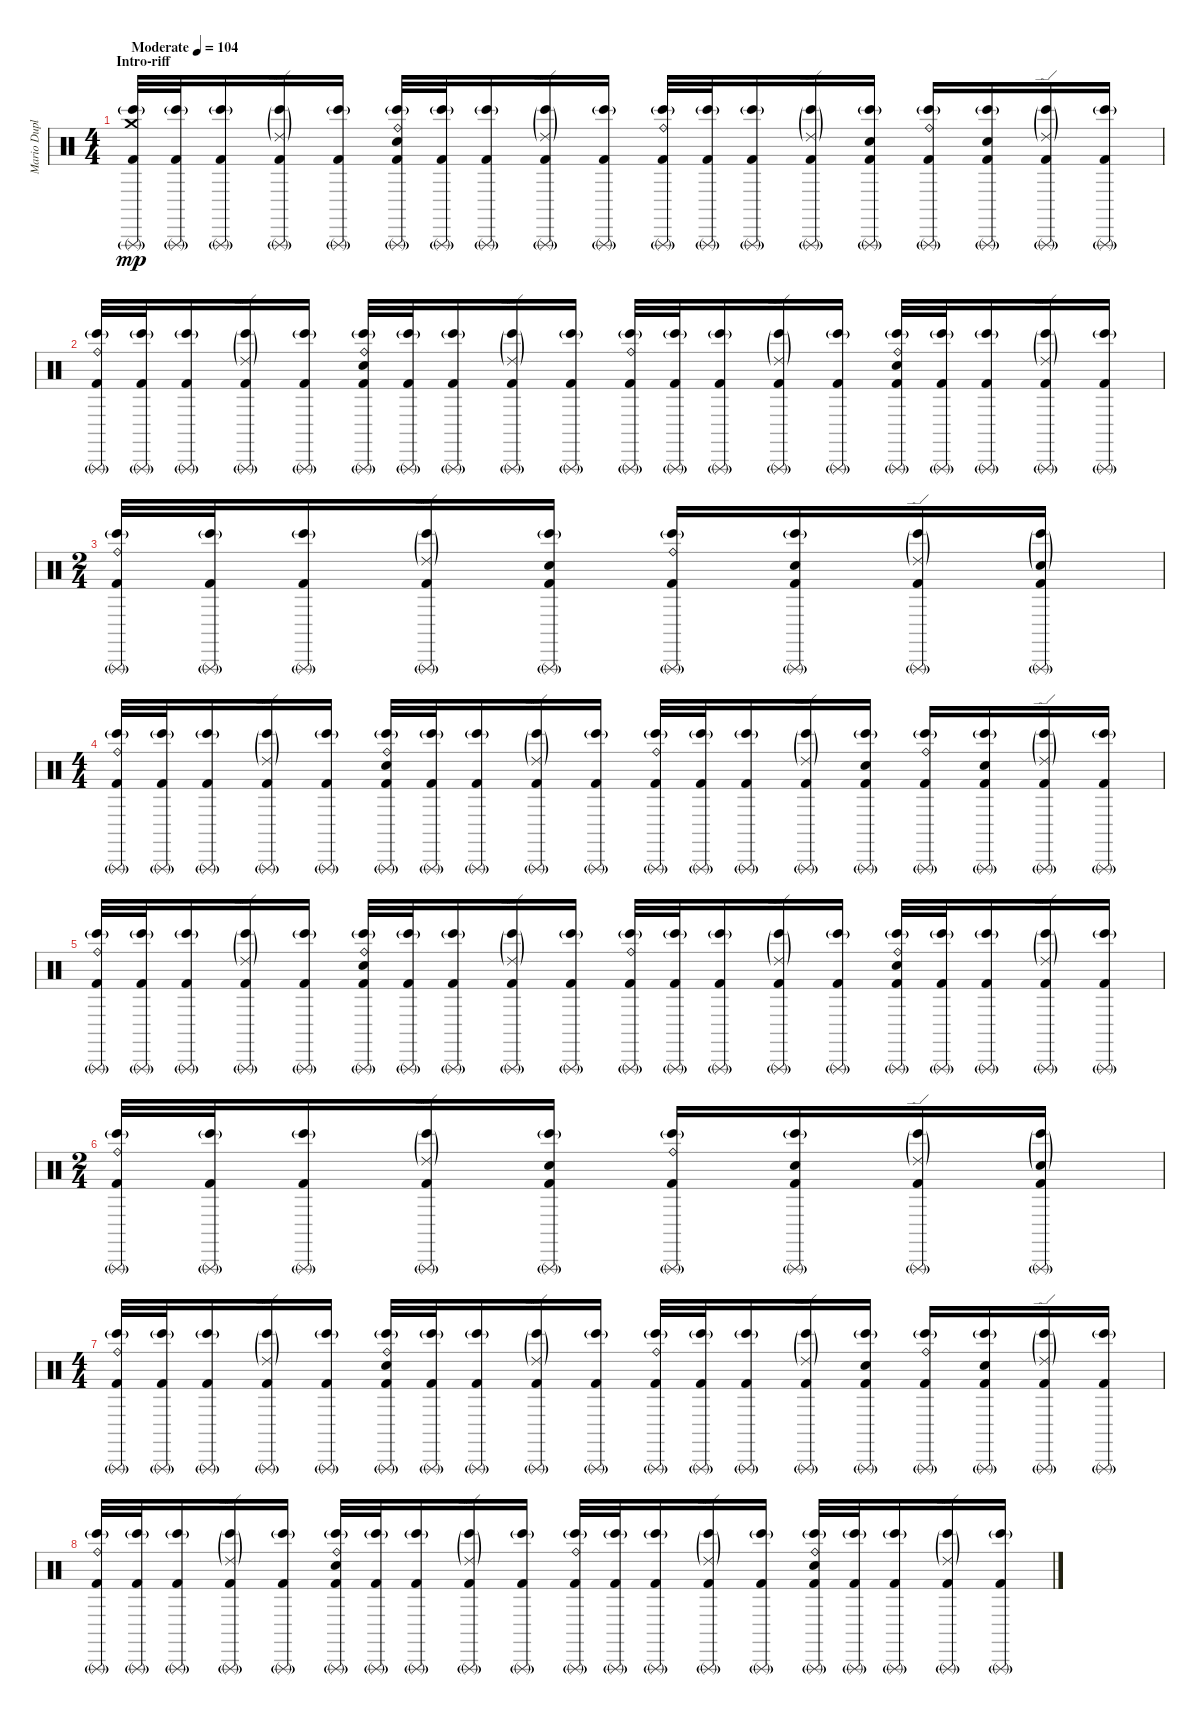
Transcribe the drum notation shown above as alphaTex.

\track ("Mario Duplantier" "Mario Dupl") {instrument percussion}
\staff {score}
\articulation defaults
\ts (4 4)
\section ("" "Intro-riff")
\tempo (104 "Moderate")
\clef neutral
\ks c
("Triangle (rnute)"{g} "Bongo High (hit)"{g} "Crash medium (hit)" "Kick (hit) 2").32{dy mp} ("Triangle (rnute)"{g} "Bongo High (hit)"{g} "Kick (hit) 2").32 ("Triangle (rnute)"{g} "Bongo High (hit)"{g} "Kick (hit) 2").16 ("Triangle (rnute)"{g} "Bongo High (hit)"{g} "Ride (edge) 2"{g} "Kick (hit) 2").16 ("Triangle (rnute)"{g} "Bongo High (hit)"{g} "Kick (hit) 2").16 ("Triangle (rnute)"{g} "Bongo High (hit)"{g} "Ride (bell)" "Electric Snare (hit)" "Kick (hit) 2").32 ("Triangle (rnute)"{g} "Bongo High (hit)"{g} "Kick (hit) 2").32 ("Triangle (rnute)"{g} "Bongo High (hit)"{g} "Kick (hit) 2").16 ("Triangle (rnute)"{g} "Bongo High (hit)"{g} "Ride (edge) 2"{g} "Kick (hit) 2").16 ("Triangle (rnute)"{g} "Bongo High (hit)"{g} "Kick (hit) 2").16 ("Triangle (rnute)"{g} "Bongo High (hit)"{g} "Ride (bell)" "Kick (hit) 2").32 ("Triangle (rnute)"{g} "Bongo High (hit)"{g} "Kick (hit) 2").32 ("Triangle (rnute)"{g} "Bongo High (hit)"{g} "Kick (hit) 2").16 ("Triangle (rnute)"{g} "Bongo High (hit)"{g} "Ride (edge) 2"{g} "Kick (hit) 2").16 ("Triangle (rnute)"{g} "Bongo High (hit)"{g} "Electric Snare (hit)" "Kick (hit) 2").16 ("Triangle (rnute)"{g} "Bongo High (hit)"{g} "Ride (bell)" "Kick (hit) 2").16 ("Triangle (rnute)"{g} "Bongo High (hit)"{g} "Electric Snare (hit)" "Kick (hit) 2").16 ("Triangle (rnute)"{g} "Bongo High (hit)"{g} "Ride (edge) 2"{g} "Kick (hit) 2").16 ("Triangle (rnute)"{g} "Bongo High (hit)"{g} "Kick (hit) 2").16 |
("Triangle (rnute)"{g} "Bongo High (hit)"{g} "Ride (bell)" "Kick (hit) 2").32 ("Triangle (rnute)"{g} "Bongo High (hit)"{g} "Kick (hit) 2").32 ("Triangle (rnute)"{g} "Bongo High (hit)"{g} "Kick (hit) 2").16 ("Triangle (rnute)"{g} "Bongo High (hit)"{g} "Ride (edge) 2"{g} "Kick (hit) 2").16 ("Triangle (rnute)"{g} "Bongo High (hit)"{g} "Kick (hit) 2").16 ("Triangle (rnute)"{g} "Bongo High (hit)"{g} "Ride (bell)" "Electric Snare (hit)" "Kick (hit) 2").32 ("Triangle (rnute)"{g} "Bongo High (hit)"{g} "Kick (hit) 2").32 ("Triangle (rnute)"{g} "Bongo High (hit)"{g} "Kick (hit) 2").16 ("Triangle (rnute)"{g} "Bongo High (hit)"{g} "Ride (edge) 2"{g} "Kick (hit) 2").16 ("Triangle (rnute)"{g} "Bongo High (hit)"{g} "Kick (hit) 2").16 ("Triangle (rnute)"{g} "Bongo High (hit)"{g} "Ride (bell)" "Kick (hit) 2").32 ("Triangle (rnute)"{g} "Bongo High (hit)"{g} "Kick (hit) 2").32 ("Triangle (rnute)"{g} "Bongo High (hit)"{g} "Kick (hit) 2").16 ("Triangle (rnute)"{g} "Bongo High (hit)"{g} "Ride (edge) 2"{g} "Kick (hit) 2").16 ("Triangle (rnute)"{g} "Bongo High (hit)"{g} "Kick (hit) 2").16 ("Triangle (rnute)"{g} "Bongo High (hit)"{g} "Ride (bell)" "Electric Snare (hit)" "Kick (hit) 2").32 ("Triangle (rnute)"{g} "Bongo High (hit)"{g} "Kick (hit) 2").32 ("Triangle (rnute)"{g} "Bongo High (hit)"{g} "Kick (hit) 2").16 ("Triangle (rnute)"{g} "Bongo High (hit)"{g} "Ride (edge) 2"{g} "Kick (hit) 2").16 ("Triangle (rnute)"{g} "Bongo High (hit)"{g} "Kick (hit) 2").16 |
\ts (2 4)
("Triangle (rnute)"{g} "Bongo High (hit)"{g} "Ride (bell)" "Kick (hit) 2").32 ("Triangle (rnute)"{g} "Bongo High (hit)"{g} "Kick (hit) 2").32 ("Triangle (rnute)"{g} "Bongo High (hit)"{g} "Kick (hit) 2").16 ("Triangle (rnute)"{g} "Bongo High (hit)"{g} "Ride (edge) 2"{g} "Kick (hit) 2").16 ("Triangle (rnute)"{g} "Bongo High (hit)"{g} "Electric Snare (hit)" "Kick (hit) 2").16 ("Triangle (rnute)"{g} "Bongo High (hit)"{g} "Ride (bell)" "Kick (hit) 2").16 ("Triangle (rnute)"{g} "Bongo High (hit)"{g} "Electric Snare (hit)" "Kick (hit) 2").16 ("Triangle (rnute)"{g} "Bongo High (hit)"{g} "Ride (edge) 2"{g} "Kick (hit) 2").16 ("Triangle (rnute)"{g} "Bongo High (hit)"{g} "Electric Snare (hit)"{g} "Kick (hit) 2").16 |
\ts (4 4)
("Triangle (rnute)"{g} "Bongo High (hit)"{g} "Ride (bell)" "Kick (hit) 2").32 ("Triangle (rnute)"{g} "Bongo High (hit)"{g} "Kick (hit) 2").32 ("Triangle (rnute)"{g} "Bongo High (hit)"{g} "Kick (hit) 2").16 ("Triangle (rnute)"{g} "Bongo High (hit)"{g} "Ride (edge) 2"{g} "Kick (hit) 2").16 ("Triangle (rnute)"{g} "Bongo High (hit)"{g} "Kick (hit) 2").16 ("Triangle (rnute)"{g} "Bongo High (hit)"{g} "Ride (bell)" "Electric Snare (hit)" "Kick (hit) 2").32 ("Triangle (rnute)"{g} "Bongo High (hit)"{g} "Kick (hit) 2").32 ("Triangle (rnute)"{g} "Bongo High (hit)"{g} "Kick (hit) 2").16 ("Triangle (rnute)"{g} "Bongo High (hit)"{g} "Ride (edge) 2"{g} "Kick (hit) 2").16 ("Triangle (rnute)"{g} "Bongo High (hit)"{g} "Kick (hit) 2").16 ("Triangle (rnute)"{g} "Bongo High (hit)"{g} "Ride (bell)" "Kick (hit) 2").32 ("Triangle (rnute)"{g} "Bongo High (hit)"{g} "Kick (hit) 2").32 ("Triangle (rnute)"{g} "Bongo High (hit)"{g} "Kick (hit) 2").16 ("Triangle (rnute)"{g} "Bongo High (hit)"{g} "Ride (edge) 2"{g} "Kick (hit) 2").16 ("Triangle (rnute)"{g} "Bongo High (hit)"{g} "Electric Snare (hit)" "Kick (hit) 2").16 ("Triangle (rnute)"{g} "Bongo High (hit)"{g} "Ride (bell)" "Kick (hit) 2").16 ("Triangle (rnute)"{g} "Bongo High (hit)"{g} "Electric Snare (hit)" "Kick (hit) 2").16 ("Triangle (rnute)"{g} "Bongo High (hit)"{g} "Ride (edge) 2"{g} "Kick (hit) 2").16 ("Triangle (rnute)"{g} "Bongo High (hit)"{g} "Kick (hit) 2").16 |
("Triangle (rnute)"{g} "Bongo High (hit)"{g} "Ride (bell)" "Kick (hit) 2").32 ("Triangle (rnute)"{g} "Bongo High (hit)"{g} "Kick (hit) 2").32 ("Triangle (rnute)"{g} "Bongo High (hit)"{g} "Kick (hit) 2").16 ("Triangle (rnute)"{g} "Bongo High (hit)"{g} "Ride (edge) 2"{g} "Kick (hit) 2").16 ("Triangle (rnute)"{g} "Bongo High (hit)"{g} "Kick (hit) 2").16 ("Triangle (rnute)"{g} "Bongo High (hit)"{g} "Ride (bell)" "Electric Snare (hit)" "Kick (hit) 2").32 ("Triangle (rnute)"{g} "Bongo High (hit)"{g} "Kick (hit) 2").32 ("Triangle (rnute)"{g} "Bongo High (hit)"{g} "Kick (hit) 2").16 ("Triangle (rnute)"{g} "Bongo High (hit)"{g} "Ride (edge) 2"{g} "Kick (hit) 2").16 ("Triangle (rnute)"{g} "Bongo High (hit)"{g} "Kick (hit) 2").16 ("Triangle (rnute)"{g} "Bongo High (hit)"{g} "Ride (bell)" "Kick (hit) 2").32 ("Triangle (rnute)"{g} "Bongo High (hit)"{g} "Kick (hit) 2").32 ("Triangle (rnute)"{g} "Bongo High (hit)"{g} "Kick (hit) 2").16 ("Triangle (rnute)"{g} "Bongo High (hit)"{g} "Ride (edge) 2"{g} "Kick (hit) 2").16 ("Triangle (rnute)"{g} "Bongo High (hit)"{g} "Kick (hit) 2").16 ("Triangle (rnute)"{g} "Bongo High (hit)"{g} "Ride (bell)" "Electric Snare (hit)" "Kick (hit) 2").32 ("Triangle (rnute)"{g} "Bongo High (hit)"{g} "Kick (hit) 2").32 ("Triangle (rnute)"{g} "Bongo High (hit)"{g} "Kick (hit) 2").16 ("Triangle (rnute)"{g} "Bongo High (hit)"{g} "Ride (edge) 2"{g} "Kick (hit) 2").16 ("Triangle (rnute)"{g} "Bongo High (hit)"{g} "Kick (hit) 2").16 |
\ts (2 4)
("Triangle (rnute)"{g} "Bongo High (hit)"{g} "Ride (bell)" "Kick (hit) 2").32 ("Triangle (rnute)"{g} "Bongo High (hit)"{g} "Kick (hit) 2").32 ("Triangle (rnute)"{g} "Bongo High (hit)"{g} "Kick (hit) 2").16 ("Triangle (rnute)"{g} "Bongo High (hit)"{g} "Ride (edge) 2"{g} "Kick (hit) 2").16 ("Triangle (rnute)"{g} "Bongo High (hit)"{g} "Electric Snare (hit)" "Kick (hit) 2").16 ("Triangle (rnute)"{g} "Bongo High (hit)"{g} "Ride (bell)" "Kick (hit) 2").16 ("Triangle (rnute)"{g} "Bongo High (hit)"{g} "Electric Snare (hit)" "Kick (hit) 2").16 ("Triangle (rnute)"{g} "Bongo High (hit)"{g} "Ride (edge) 2"{g} "Kick (hit) 2").16 ("Triangle (rnute)"{g} "Bongo High (hit)"{g} "Electric Snare (hit)"{g} "Kick (hit) 2").16 |
\ts (4 4)
("Triangle (rnute)"{g} "Bongo High (hit)"{g} "Ride (bell)" "Kick (hit) 2").32 ("Triangle (rnute)"{g} "Bongo High (hit)"{g} "Kick (hit) 2").32 ("Triangle (rnute)"{g} "Bongo High (hit)"{g} "Kick (hit) 2").16 ("Triangle (rnute)"{g} "Bongo High (hit)"{g} "Ride (edge) 2"{g} "Kick (hit) 2").16 ("Triangle (rnute)"{g} "Bongo High (hit)"{g} "Kick (hit) 2").16 ("Triangle (rnute)"{g} "Bongo High (hit)"{g} "Ride (bell)" "Electric Snare (hit)" "Kick (hit) 2").32 ("Triangle (rnute)"{g} "Bongo High (hit)"{g} "Kick (hit) 2").32 ("Triangle (rnute)"{g} "Bongo High (hit)"{g} "Kick (hit) 2").16 ("Triangle (rnute)"{g} "Bongo High (hit)"{g} "Ride (edge) 2"{g} "Kick (hit) 2").16 ("Triangle (rnute)"{g} "Bongo High (hit)"{g} "Kick (hit) 2").16 ("Triangle (rnute)"{g} "Bongo High (hit)"{g} "Ride (bell)" "Kick (hit) 2").32 ("Triangle (rnute)"{g} "Bongo High (hit)"{g} "Kick (hit) 2").32 ("Triangle (rnute)"{g} "Bongo High (hit)"{g} "Kick (hit) 2").16 ("Triangle (rnute)"{g} "Bongo High (hit)"{g} "Ride (edge) 2"{g} "Kick (hit) 2").16 ("Triangle (rnute)"{g} "Bongo High (hit)"{g} "Electric Snare (hit)" "Kick (hit) 2").16 ("Triangle (rnute)"{g} "Bongo High (hit)"{g} "Ride (bell)" "Kick (hit) 2").16 ("Triangle (rnute)"{g} "Bongo High (hit)"{g} "Electric Snare (hit)" "Kick (hit) 2").16 ("Triangle (rnute)"{g} "Bongo High (hit)"{g} "Ride (edge) 2"{g} "Kick (hit) 2").16 ("Triangle (rnute)"{g} "Bongo High (hit)"{g} "Kick (hit) 2").16 |
("Triangle (rnute)"{g} "Bongo High (hit)"{g} "Ride (bell)" "Kick (hit) 2").32 ("Triangle (rnute)"{g} "Bongo High (hit)"{g} "Kick (hit) 2").32 ("Triangle (rnute)"{g} "Bongo High (hit)"{g} "Kick (hit) 2").16 ("Triangle (rnute)"{g} "Bongo High (hit)"{g} "Ride (edge) 2"{g} "Kick (hit) 2").16 ("Triangle (rnute)"{g} "Bongo High (hit)"{g} "Kick (hit) 2").16 ("Triangle (rnute)"{g} "Bongo High (hit)"{g} "Ride (bell)" "Electric Snare (hit)" "Kick (hit) 2").32 ("Triangle (rnute)"{g} "Bongo High (hit)"{g} "Kick (hit) 2").32 ("Triangle (rnute)"{g} "Bongo High (hit)"{g} "Kick (hit) 2").16 ("Triangle (rnute)"{g} "Bongo High (hit)"{g} "Ride (edge) 2"{g} "Kick (hit) 2").16 ("Triangle (rnute)"{g} "Bongo High (hit)"{g} "Kick (hit) 2").16 ("Triangle (rnute)"{g} "Bongo High (hit)"{g} "Ride (bell)" "Kick (hit) 2").32 ("Triangle (rnute)"{g} "Bongo High (hit)"{g} "Kick (hit) 2").32 ("Triangle (rnute)"{g} "Bongo High (hit)"{g} "Kick (hit) 2").16 ("Triangle (rnute)"{g} "Bongo High (hit)"{g} "Ride (edge) 2"{g} "Kick (hit) 2").16 ("Triangle (rnute)"{g} "Bongo High (hit)"{g} "Kick (hit) 2").16 ("Triangle (rnute)"{g} "Bongo High (hit)"{g} "Ride (bell)" "Electric Snare (hit)" "Kick (hit) 2").32 ("Triangle (rnute)"{g} "Bongo High (hit)"{g} "Kick (hit) 2").32 ("Triangle (rnute)"{g} "Bongo High (hit)"{g} "Kick (hit) 2").16 ("Triangle (rnute)"{g} "Bongo High (hit)"{g} "Ride (edge) 2"{g} "Kick (hit) 2").16 ("Triangle (rnute)"{g} "Bongo High (hit)"{g} "Kick (hit) 2").16
